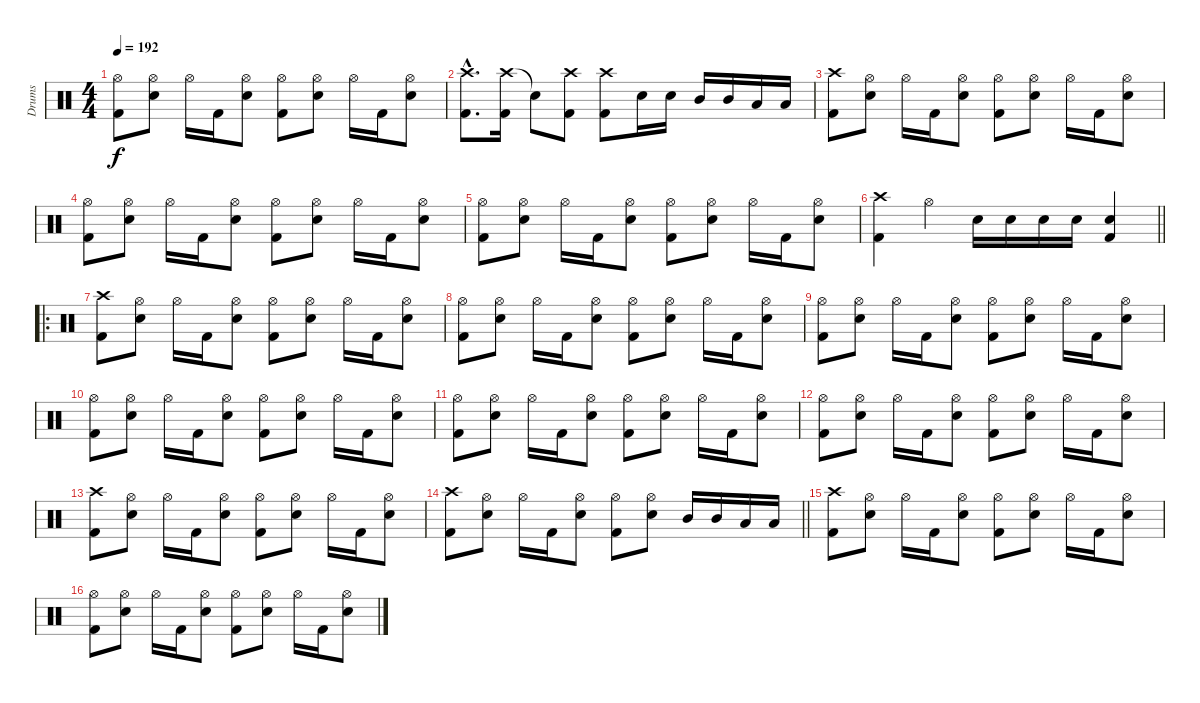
\track ("Drums" "Drums") {instrument percussion}
\staff {score}
\articulation defaults
\ts (4 4)
\tempo 192
\clef neutral
\ks c
("Hi-Hat (open)" "Kick (hit) 2").8{dy f} ("Hi-Hat (open)" "Snare (hit) 2").8 "Hi-Hat (open)".16 "Kick (hit) 2".16 ("Hi-Hat (open)" "Snare (hit) 2").8 ("Hi-Hat (open)" "Kick (hit) 2").8 ("Hi-Hat (open)" "Snare (hit) 2").8 "Hi-Hat (open)".16 "Kick (hit) 2".16 ("Hi-Hat (open)" "Snare (hit) 2").8 |
("Crash high (hit)"{hac} "Kick (hit) 2"{hac}).8{d} ("Crash high (hit)" "Kick (hit) 2").16 "Snare (hit)"{t}.8 ("Crash high (hit)" "Kick (hit) 2").8 ("Crash high (hit)" "Kick (hit) 2").8 "Snare (hit) 2".16 "Snare (hit) 2".16 "Mid Tom (hit)".16 "Mid Tom (hit)".16 "Low Floor Tom (hit)".16 "Low Floor Tom (hit)".16 |
("Crash high (hit)" "Kick (hit) 2").8 ("Hi-Hat (open)" "Snare (hit) 2").8 "Hi-Hat (open)".16 "Kick (hit) 2".16 ("Hi-Hat (open)" "Snare (hit) 2").8 ("Hi-Hat (open)" "Kick (hit) 2").8 ("Hi-Hat (open)" "Snare (hit) 2").8 "Hi-Hat (open)".16 "Kick (hit) 2".16 ("Hi-Hat (open)" "Snare (hit) 2").8 |
("Hi-Hat (open)" "Kick (hit) 2").8 ("Hi-Hat (open)" "Snare (hit) 2").8 "Hi-Hat (open)".16 "Kick (hit) 2".16 ("Hi-Hat (open)" "Snare (hit) 2").8 ("Hi-Hat (open)" "Kick (hit) 2").8 ("Hi-Hat (open)" "Snare (hit) 2").8 "Hi-Hat (open)".16 "Kick (hit) 2".16 ("Hi-Hat (open)" "Snare (hit) 2").8 |
("Hi-Hat (open)" "Kick (hit) 2").8 ("Hi-Hat (open)" "Snare (hit) 2").8 "Hi-Hat (open)".16 "Kick (hit) 2".16 ("Hi-Hat (open)" "Snare (hit) 2").8 ("Hi-Hat (open)" "Kick (hit) 2").8 ("Hi-Hat (open)" "Snare (hit) 2").8 "Hi-Hat (open)".16 "Kick (hit) 2".16 ("Hi-Hat (open)" "Snare (hit) 2").8 |
\barLineRight lightlight
("Crash high (hit)" "Kick (hit) 2").4 "Hi-Hat (open)".4 "Snare (hit) 2".16 "Snare (hit) 2".16 "Snare (hit) 2".16 "Snare (hit) 2".16 ("Snare (hit) 2" "Kick (hit) 2").4 |
\ro
("Crash high (hit)" "Kick (hit) 2").8 ("Hi-Hat (open)" "Snare (hit) 2").8 "Hi-Hat (open)".16 "Kick (hit) 2".16 ("Hi-Hat (open)" "Snare (hit) 2").8 ("Hi-Hat (open)" "Kick (hit) 2").8 ("Hi-Hat (open)" "Snare (hit) 2").8 "Hi-Hat (open)".16 "Kick (hit) 2".16 ("Hi-Hat (open)" "Snare (hit) 2").8 |
("Hi-Hat (open)" "Kick (hit) 2").8 ("Hi-Hat (open)" "Snare (hit) 2").8 "Hi-Hat (open)".16 "Kick (hit) 2".16 ("Hi-Hat (open)" "Snare (hit) 2").8 ("Hi-Hat (open)" "Kick (hit) 2").8 ("Hi-Hat (open)" "Snare (hit) 2").8 "Hi-Hat (open)".16 "Kick (hit) 2".16 ("Hi-Hat (open)" "Snare (hit) 2").8 |
("Hi-Hat (open)" "Kick (hit) 2").8 ("Hi-Hat (open)" "Snare (hit) 2").8 "Hi-Hat (open)".16 "Kick (hit) 2".16 ("Hi-Hat (open)" "Snare (hit) 2").8 ("Hi-Hat (open)" "Kick (hit) 2").8 ("Hi-Hat (open)" "Snare (hit) 2").8 "Hi-Hat (open)".16 "Kick (hit) 2".16 ("Hi-Hat (open)" "Snare (hit) 2").8 |
("Hi-Hat (open)" "Kick (hit) 2").8 ("Hi-Hat (open)" "Snare (hit) 2").8 "Hi-Hat (open)".16 "Kick (hit) 2".16 ("Hi-Hat (open)" "Snare (hit) 2").8 ("Hi-Hat (open)" "Kick (hit) 2").8 ("Hi-Hat (open)" "Snare (hit) 2").8 "Hi-Hat (open)".16 "Kick (hit) 2".16 ("Hi-Hat (open)" "Snare (hit) 2").8 |
("Hi-Hat (open)" "Kick (hit) 2").8 ("Hi-Hat (open)" "Snare (hit) 2").8 "Hi-Hat (open)".16 "Kick (hit) 2".16 ("Hi-Hat (open)" "Snare (hit) 2").8 ("Hi-Hat (open)" "Kick (hit) 2").8 ("Hi-Hat (open)" "Snare (hit) 2").8 "Hi-Hat (open)".16 "Kick (hit) 2".16 ("Hi-Hat (open)" "Snare (hit) 2").8 |
("Hi-Hat (open)" "Kick (hit) 2").8 ("Hi-Hat (open)" "Snare (hit) 2").8 "Hi-Hat (open)".16 "Kick (hit) 2".16 ("Hi-Hat (open)" "Snare (hit) 2").8 ("Hi-Hat (open)" "Kick (hit) 2").8 ("Hi-Hat (open)" "Snare (hit) 2").8 "Hi-Hat (open)".16 "Kick (hit) 2".16 ("Hi-Hat (open)" "Snare (hit) 2").8 |
("Crash high (hit)" "Kick (hit) 2").8 ("Hi-Hat (open)" "Snare (hit) 2").8 "Hi-Hat (open)".16 "Kick (hit) 2".16 ("Hi-Hat (open)" "Snare (hit) 2").8 ("Hi-Hat (open)" "Kick (hit) 2").8 ("Hi-Hat (open)" "Snare (hit) 2").8 "Hi-Hat (open)".16 "Kick (hit) 2".16 ("Hi-Hat (open)" "Snare (hit) 2").8 |
\barLineRight lightlight
("Crash high (hit)" "Kick (hit) 2").8 ("Hi-Hat (open)" "Snare (hit) 2").8 "Hi-Hat (open)".16 "Kick (hit) 2".16 ("Hi-Hat (open)" "Snare (hit) 2").8 ("Hi-Hat (open)" "Kick (hit) 2").8 ("Hi-Hat (open)" "Snare (hit) 2").8 "Mid Tom (hit)".16 "Mid Tom (hit)".16 "Low Floor Tom (hit)".16 "Low Floor Tom (hit)".16 |
("Crash high (hit)" "Kick (hit) 2").8 ("Hi-Hat (open)" "Snare (hit) 2").8 "Hi-Hat (open)".16 "Kick (hit) 2".16 ("Hi-Hat (open)" "Snare (hit) 2").8 ("Hi-Hat (open)" "Kick (hit) 2").8 ("Hi-Hat (open)" "Snare (hit) 2").8 "Hi-Hat (open)".16 "Kick (hit) 2".16 ("Hi-Hat (open)" "Snare (hit) 2").8 |
("Hi-Hat (open)" "Kick (hit) 2").8 ("Hi-Hat (open)" "Snare (hit) 2").8 "Hi-Hat (open)".16 "Kick (hit) 2".16 ("Hi-Hat (open)" "Snare (hit) 2").8 ("Hi-Hat (open)" "Kick (hit) 2").8 ("Hi-Hat (open)" "Snare (hit) 2").8 "Hi-Hat (open)".16 "Kick (hit) 2".16 ("Hi-Hat (open)" "Snare (hit) 2").8
